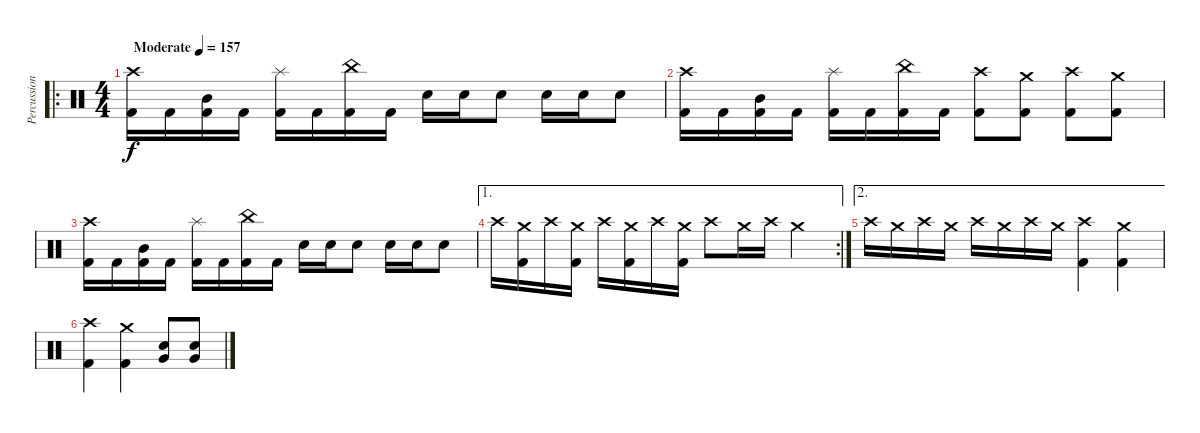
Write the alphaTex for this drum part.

\track ("Percussion" "Percussion") {instrument percussion}
\staff {score}
\articulation defaults
\ro
\ts (4 4)
\tempo (157 "Moderate")
\clef neutral
\ks c
("Crash high (hit)" "Kick (hit) 2").16{dy f} "Kick (hit) 2".16 ("Mid Tom (hit)" "Kick (hit) 2").16 "Kick (hit) 2".16 ("Splash (hit)" "Kick (hit) 2").16 "Kick (hit) 2".16 ("China (hit)" "Kick (hit) 2").16 "Kick (hit) 2".16 "Electric Snare (hit)".16 "Electric Snare (hit)".16 "Electric Snare (hit)".8 "Electric Snare (hit)".16 "Electric Snare (hit)".16 "Electric Snare (hit)".8 |
("Crash high (hit)" "Kick (hit) 2").16 "Kick (hit) 2".16 ("Mid Tom (hit)" "Kick (hit) 2").16 "Kick (hit) 2".16 ("Splash (hit)" "Kick (hit) 2").16 "Kick (hit) 2".16 ("China (hit)" "Kick (hit) 2").16 "Kick (hit) 2".16 ("Crash high (hit)" "Kick (hit) 2").8 ("Crash medium (hit)" "Kick (hit) 2").8 ("Crash high (hit)" "Kick (hit) 2").8 ("Crash medium (hit)" "Kick (hit) 2").8 |
("Crash high (hit)" "Kick (hit) 2").16 "Kick (hit) 2".16 ("Mid Tom (hit)" "Kick (hit) 2").16 "Kick (hit) 2".16 ("Splash (hit)" "Kick (hit) 2").16 "Kick (hit) 2".16 ("China (hit)" "Kick (hit) 2").16 "Kick (hit) 2".16 "Electric Snare (hit)".16 "Electric Snare (hit)".16 "Electric Snare (hit)".8 "Electric Snare (hit)".16 "Electric Snare (hit)".16 "Electric Snare (hit)".8 |
\ae 1
\rc 2 "Crash high (hit)".16
("Crash medium (hit)" "Kick (hit) 2").16 "Crash high (hit)".16 ("Crash medium (hit)" "Kick (hit) 2").16 "Crash high (hit)".16 ("Crash medium (hit)" "Kick (hit) 2").16 "Crash high (hit)".16 ("Crash medium (hit)" "Kick (hit) 2").16 "Crash high (hit)".8 "Crash medium (hit)".16 "Crash high (hit)".16 "Crash medium (hit)".4 |
\ae 2 "Crash high (hit)".16 "Crash medium (hit)".16 "Crash high (hit)".16 "Crash medium (hit)".16 "Crash high (hit)".16 "Crash medium (hit)".16 "Crash high (hit)".16 "Crash medium (hit)".16
("Crash high (hit)" "Kick (hit) 2").4 ("Crash medium (hit)" "Kick (hit) 2").4 |
("Crash high (hit)" "Kick (hit) 2").4 ("Crash medium (hit)" "Kick (hit) 2").4 ("Electric Snare (hit)" "Very Low Tom (hit)").8 ("Electric Snare (hit)" "Very Low Tom (hit)").8
